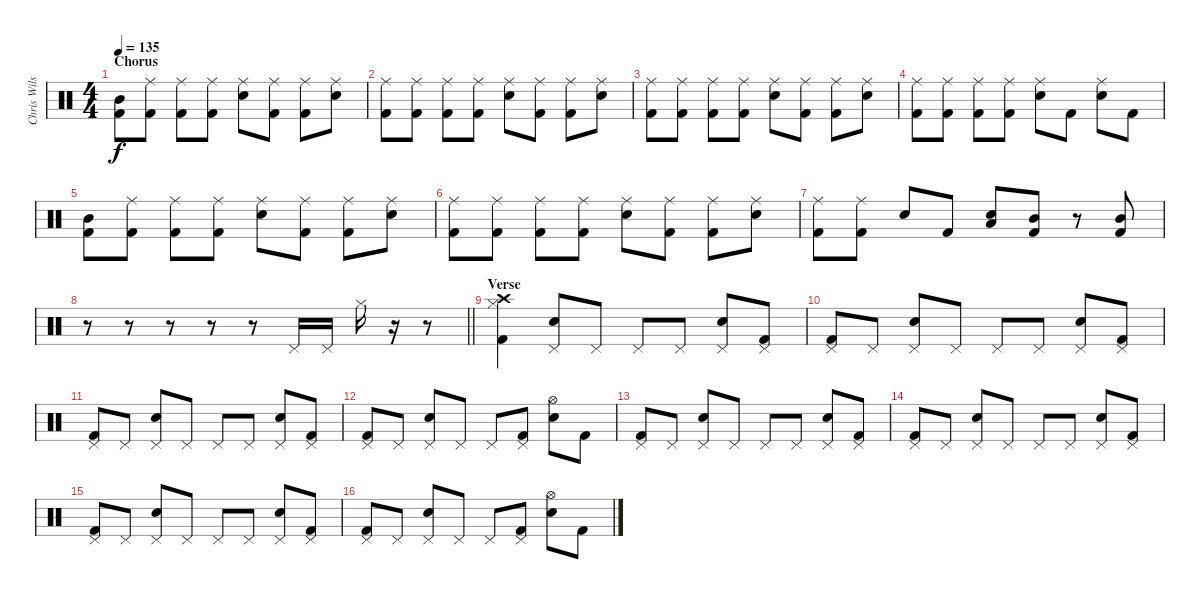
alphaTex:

\track ("Chris Wilson - Drums" "Chris Wils") {instrument percussion}
\staff {score}
\articulation defaults
\ts (4 4)
\section ("" "Chorus")
\tempo 135
\clef neutral
\ks c
("Mid Tom (hit)" "Kick (hit) 2").8{dy f} ("Ride (middle)" "Kick (hit) 2").8 ("Ride (middle)" "Kick (hit) 2").8 ("Ride (middle)" "Kick (hit) 2").8 ("Ride (middle)" "Snare (hit) 2").8 ("Ride (middle)" "Kick (hit) 2").8 ("Ride (middle)" "Kick (hit) 2").8 ("Ride (middle)" "Snare (hit) 2").8 |
("Ride (middle)" "Kick (hit) 2").8 ("Ride (middle)" "Kick (hit) 2").8 ("Ride (middle)" "Kick (hit) 2").8 ("Ride (middle)" "Kick (hit) 2").8 ("Ride (middle)" "Snare (hit) 2").8 ("Ride (middle)" "Kick (hit) 2").8 ("Ride (middle)" "Kick (hit) 2").8 ("Ride (middle)" "Snare (hit) 2").8 |
("Ride (middle)" "Kick (hit) 2").8 ("Ride (middle)" "Kick (hit) 2").8 ("Ride (middle)" "Kick (hit) 2").8 ("Ride (middle)" "Kick (hit) 2").8 ("Ride (middle)" "Snare (hit) 2").8 ("Ride (middle)" "Kick (hit) 2").8 ("Ride (middle)" "Kick (hit) 2").8 ("Ride (middle)" "Snare (hit) 2").8 |
("Ride (middle)" "Kick (hit) 2").8 ("Ride (middle)" "Kick (hit) 2").8 ("Ride (middle)" "Kick (hit) 2").8 ("Ride (middle)" "Kick (hit) 2").8 ("Ride (middle)" "Snare (hit) 2").8 "Kick (hit) 2".8 ("Ride (middle)" "Snare (hit) 2").8 "Kick (hit) 2".8 |
("Mid Tom (hit)" "Kick (hit) 2").8 ("Ride (middle)" "Kick (hit) 2").8 ("Ride (middle)" "Kick (hit) 2").8 ("Ride (middle)" "Kick (hit) 2").8 ("Ride (middle)" "Snare (hit) 2").8 ("Ride (middle)" "Kick (hit) 2").8 ("Ride (middle)" "Kick (hit) 2").8 ("Ride (middle)" "Snare (hit) 2").8 |
("Ride (middle)" "Kick (hit) 2").8 ("Ride (middle)" "Kick (hit) 2").8 ("Ride (middle)" "Kick (hit) 2").8 ("Ride (middle)" "Kick (hit) 2").8 ("Ride (middle)" "Snare (hit) 2").8 ("Ride (middle)" "Kick (hit) 2").8 ("Ride (middle)" "Kick (hit) 2").8 ("Ride (middle)" "Snare (hit) 2").8 |
("Ride (middle)" "Kick (hit) 2").8 ("Ride (middle)" "Kick (hit) 2").8 "Snare (hit) 2".8 "Kick (hit) 2".8 ("Low Floor Tom (hit)" "Snare (hit) 2").8 ("Mid Tom (hit)" "Kick (hit) 2").8 r.8 ("Mid Tom (hit)" "Kick (hit) 2").8 |
\barLineRight lightlight
r.8 r.8 r.8 r.8 r.8 "Pedal Hi-Hat (hit)".16 "Pedal Hi-Hat (hit)".16 "Hi-Hat (closed)".16 r.16 r.8 |
\section ("" "Verse")
("Crash high (hit)" "Hi-Hat (closed)" "Kick (hit) 2").4 ("Pedal Hi-Hat (hit)" "Snare (hit) 2").8 "Pedal Hi-Hat (hit)".8 "Pedal Hi-Hat (hit)".8 "Pedal Hi-Hat (hit)".8 ("Pedal Hi-Hat (hit)" "Snare (hit) 2").8 ("Pedal Hi-Hat (hit)" "Kick (hit) 2").8 |
("Pedal Hi-Hat (hit)" "Kick (hit) 2").8 "Pedal Hi-Hat (hit)".8 ("Pedal Hi-Hat (hit)" "Snare (hit) 2").8 "Pedal Hi-Hat (hit)".8 "Pedal Hi-Hat (hit)".8 "Pedal Hi-Hat (hit)".8 ("Pedal Hi-Hat (hit)" "Snare (hit) 2").8 ("Pedal Hi-Hat (hit)" "Kick (hit) 2").8 |
("Pedal Hi-Hat (hit)" "Kick (hit) 2").8 "Pedal Hi-Hat (hit)".8 ("Pedal Hi-Hat (hit)" "Snare (hit) 2").8 "Pedal Hi-Hat (hit)".8 "Pedal Hi-Hat (hit)".8 "Pedal Hi-Hat (hit)".8 ("Pedal Hi-Hat (hit)" "Snare (hit) 2").8 ("Pedal Hi-Hat (hit)" "Kick (hit) 2").8 |
("Pedal Hi-Hat (hit)" "Kick (hit) 2").8 "Pedal Hi-Hat (hit)".8 ("Pedal Hi-Hat (hit)" "Snare (hit) 2").8 "Pedal Hi-Hat (hit)".8 "Pedal Hi-Hat (hit)".8 ("Pedal Hi-Hat (hit)" "Kick (hit) 2").8 ("Hi-Hat (open)" "Snare (hit) 2").8 "Kick (hit) 2".8 |
("Pedal Hi-Hat (hit)" "Kick (hit) 2").8 "Pedal Hi-Hat (hit)".8 ("Pedal Hi-Hat (hit)" "Snare (hit) 2").8 "Pedal Hi-Hat (hit)".8 "Pedal Hi-Hat (hit)".8 "Pedal Hi-Hat (hit)".8 ("Pedal Hi-Hat (hit)" "Snare (hit) 2").8 ("Pedal Hi-Hat (hit)" "Kick (hit) 2").8 |
("Pedal Hi-Hat (hit)" "Kick (hit) 2").8 "Pedal Hi-Hat (hit)".8 ("Pedal Hi-Hat (hit)" "Snare (hit) 2").8 "Pedal Hi-Hat (hit)".8 "Pedal Hi-Hat (hit)".8 "Pedal Hi-Hat (hit)".8 ("Pedal Hi-Hat (hit)" "Snare (hit) 2").8 ("Pedal Hi-Hat (hit)" "Kick (hit) 2").8 |
("Pedal Hi-Hat (hit)" "Kick (hit) 2").8 "Pedal Hi-Hat (hit)".8 ("Pedal Hi-Hat (hit)" "Snare (hit) 2").8 "Pedal Hi-Hat (hit)".8 "Pedal Hi-Hat (hit)".8 "Pedal Hi-Hat (hit)".8 ("Pedal Hi-Hat (hit)" "Snare (hit) 2").8 ("Pedal Hi-Hat (hit)" "Kick (hit) 2").8 |
("Pedal Hi-Hat (hit)" "Kick (hit) 2").8 "Pedal Hi-Hat (hit)".8 ("Pedal Hi-Hat (hit)" "Snare (hit) 2").8 "Pedal Hi-Hat (hit)".8 "Pedal Hi-Hat (hit)".8 ("Pedal Hi-Hat (hit)" "Kick (hit) 2").8 ("Hi-Hat (open)" "Snare (hit) 2").8 "Kick (hit) 2".8
